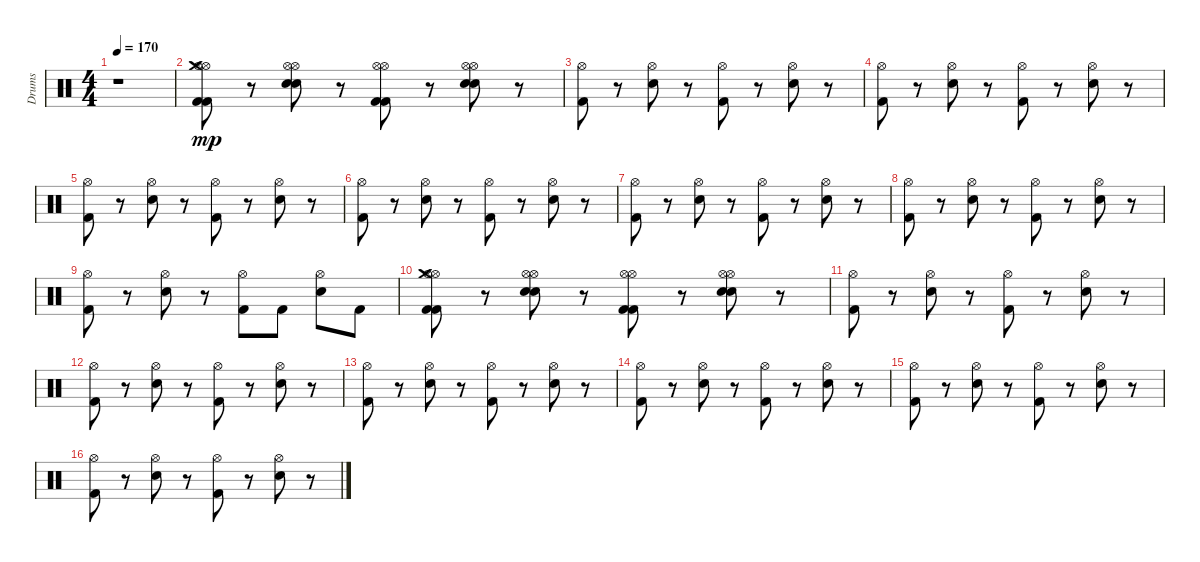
\track ("Drums" "Drums") {instrument percussion}
\staff {score}
\articulation defaults
\ts (4 4)
\tempo 170
\clef neutral
\ks c
r.1{dy mp} |
("Kick (hit) 2" "Hi-Hat (open)" "Hi-Hat (open)" "Kick (hit) 2" "Crash medium (hit)").8 r.8 ("Hi-Hat (open)" "Electric Snare (hit)" "Electric Snare (hit)" "Hi-Hat (open)").8 r.8 ("Hi-Hat (open)" "Kick (hit) 2" "Hi-Hat (open)" "Kick (hit) 2").8 r.8 ("Electric Snare (hit)" "Hi-Hat (open)" "Hi-Hat (open)" "Electric Snare (hit)").8 r.8 |
("Kick (hit) 2" "Hi-Hat (open)").8 r.8 ("Hi-Hat (open)" "Electric Snare (hit)").8 r.8 ("Hi-Hat (open)" "Kick (hit) 2").8 r.8 ("Electric Snare (hit)" "Hi-Hat (open)").8 r.8 |
("Kick (hit) 2" "Hi-Hat (open)").8 r.8 ("Electric Snare (hit)" "Hi-Hat (open)").8 r.8 ("Kick (hit) 2" "Hi-Hat (open)").8 r.8 ("Electric Snare (hit)" "Hi-Hat (open)").8 r.8 |
("Kick (hit) 2" "Hi-Hat (open)").8 r.8 ("Electric Snare (hit)" "Hi-Hat (open)").8 r.8 ("Hi-Hat (open)" "Kick (hit) 2").8 r.8 ("Hi-Hat (open)" "Electric Snare (hit)").8 r.8 |
("Hi-Hat (open)" "Kick (hit) 2").8 r.8 ("Hi-Hat (open)" "Electric Snare (hit)").8 r.8 ("Hi-Hat (open)" "Kick (hit) 2").8 r.8 ("Electric Snare (hit)" "Hi-Hat (open)").8 r.8 |
("Hi-Hat (open)" "Kick (hit) 2").8 r.8 ("Hi-Hat (open)" "Electric Snare (hit)").8 r.8 ("Hi-Hat (open)" "Kick (hit) 2").8 r.8 ("Hi-Hat (open)" "Electric Snare (hit)").8 r.8 |
("Kick (hit) 2" "Hi-Hat (open)").8 r.8 ("Electric Snare (hit)" "Hi-Hat (open)").8 r.8 ("Hi-Hat (open)" "Kick (hit) 2").8 r.8 ("Hi-Hat (open)" "Electric Snare (hit)").8 r.8 |
("Kick (hit) 2" "Hi-Hat (open)").8 r.8 ("Hi-Hat (open)" "Electric Snare (hit)").8 r.8 ("Kick (hit) 2" "Hi-Hat (open)").8 "Kick (hit) 2".8 ("Electric Snare (hit)" "Hi-Hat (open)").8 "Kick (hit) 2".8 |
("Hi-Hat (open)" "Hi-Hat (open)" "Kick (hit) 2" "Kick (hit) 2" "Crash medium (hit)").8 r.8 ("Hi-Hat (open)" "Hi-Hat (open)" "Electric Snare (hit)" "Electric Snare (hit)").8 r.8 ("Kick (hit) 2" "Hi-Hat (open)" "Kick (hit) 2" "Hi-Hat (open)").8 r.8 ("Hi-Hat (open)" "Electric Snare (hit)" "Hi-Hat (open)" "Electric Snare (hit)").8 r.8 |
("Kick (hit) 2" "Hi-Hat (open)").8 r.8 ("Hi-Hat (open)" "Electric Snare (hit)").8 r.8 ("Hi-Hat (open)" "Kick (hit) 2").8 r.8 ("Hi-Hat (open)" "Electric Snare (hit)").8 r.8 |
("Kick (hit) 2" "Hi-Hat (open)").8 r.8 ("Electric Snare (hit)" "Hi-Hat (open)").8 r.8 ("Kick (hit) 2" "Hi-Hat (open)").8 r.8 ("Hi-Hat (open)" "Electric Snare (hit)").8 r.8 |
("Hi-Hat (open)" "Kick (hit) 2").8 r.8 ("Electric Snare (hit)" "Hi-Hat (open)").8 r.8 ("Hi-Hat (open)" "Kick (hit) 2").8 r.8 ("Electric Snare (hit)" "Hi-Hat (open)").8 r.8 |
("Hi-Hat (open)" "Kick (hit) 2").8 r.8 ("Electric Snare (hit)" "Hi-Hat (open)").8 r.8 ("Kick (hit) 2" "Hi-Hat (open)").8 r.8 ("Hi-Hat (open)" "Electric Snare (hit)").8 r.8 |
("Hi-Hat (open)" "Kick (hit) 2").8 r.8 ("Electric Snare (hit)" "Hi-Hat (open)").8 r.8 ("Hi-Hat (open)" "Kick (hit) 2").8 r.8 ("Hi-Hat (open)" "Electric Snare (hit)").8 r.8 |
("Hi-Hat (open)" "Kick (hit) 2").8 r.8 ("Electric Snare (hit)" "Hi-Hat (open)").8 r.8 ("Hi-Hat (open)" "Kick (hit) 2").8 r.8 ("Electric Snare (hit)" "Hi-Hat (open)").8 r.8
